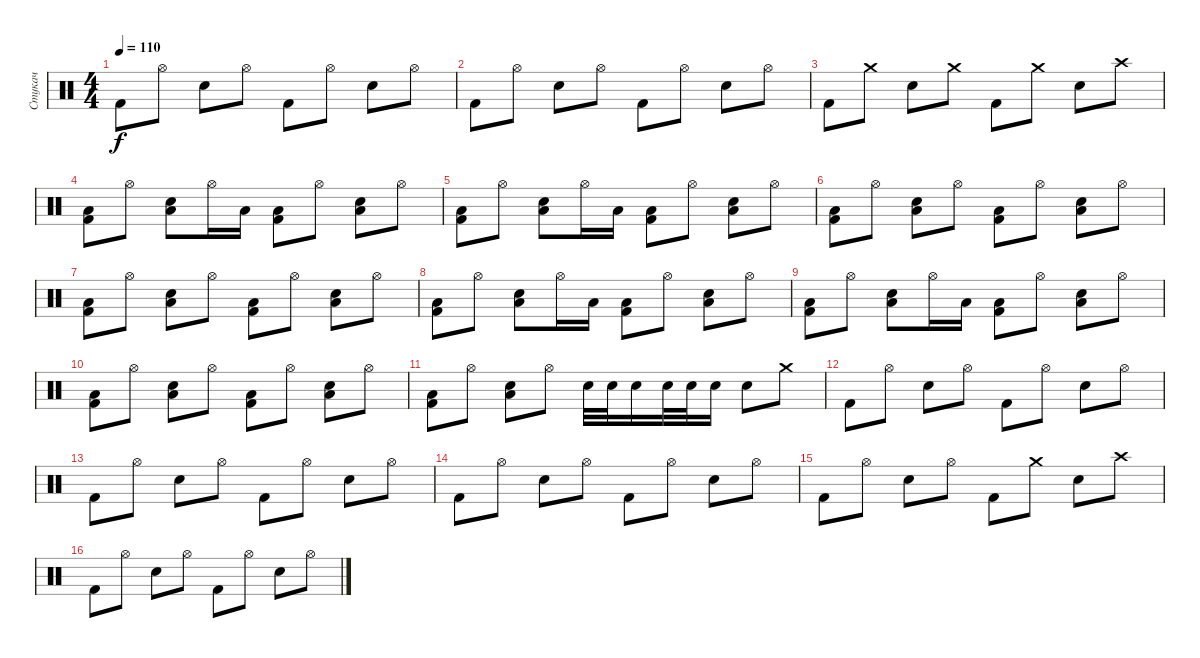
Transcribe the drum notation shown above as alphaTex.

\track ("Стукач" "Стукач") {instrument percussion}
\staff {score}
\articulation defaults
\ts (4 4)
\tempo 110
\clef neutral
\ks c "Kick (hit) 2".8{dy f} "Hi-Hat (open)".8 "Electric Snare (hit)".8 "Hi-Hat (open)".8 "Kick (hit) 2".8 "Hi-Hat (open)".8 "Electric Snare (hit)".8 "Hi-Hat (open)".8
|
"Kick (hit) 2".8 "Hi-Hat (open)".8 "Electric Snare (hit)".8 "Hi-Hat (open)".8 "Kick (hit) 2".8 "Hi-Hat (open)".8 "Electric Snare (hit)".8 "Hi-Hat (open)".8 |
"Kick (hit) 2".8 "Crash medium (hit)".8 "Electric Snare (hit)".8 "Crash medium (hit)".8 "Kick (hit) 2".8 "Crash medium (hit)".8 "Electric Snare (hit)".8 "Crash high (hit)".8 |
("Kick (hit) 2" "Low Floor Tom (hit)").8 "Hi-Hat (open)".8 ("Electric Snare (hit)" "Low Floor Tom (hit)").8 "Hi-Hat (open)".16 "Low Floor Tom (hit)".16 ("Kick (hit) 2" "Low Floor Tom (hit)").8 "Hi-Hat (open)".8 ("Electric Snare (hit)" "Low Floor Tom (hit)").8 "Hi-Hat (open)".8 |
("Kick (hit) 2" "Low Floor Tom (hit)").8 "Hi-Hat (open)".8 ("Electric Snare (hit)" "Low Floor Tom (hit)").8 "Hi-Hat (open)".16 "Low Floor Tom (hit)".16 ("Kick (hit) 2" "Low Floor Tom (hit)").8 "Hi-Hat (open)".8 ("Electric Snare (hit)" "Low Floor Tom (hit)").8 "Hi-Hat (open)".8 |
("Kick (hit) 2" "Low Floor Tom (hit)").8 "Hi-Hat (open)".8 ("Electric Snare (hit)" "Low Floor Tom (hit)").8 "Hi-Hat (open)".8 ("Kick (hit) 2" "Low Floor Tom (hit)").8 "Hi-Hat (open)".8 ("Electric Snare (hit)" "Low Floor Tom (hit)").8 "Hi-Hat (open)".8 |
("Kick (hit) 2" "Low Floor Tom (hit)").8 "Hi-Hat (open)".8 ("Electric Snare (hit)" "Low Floor Tom (hit)").8 "Hi-Hat (open)".8 ("Kick (hit) 2" "Low Floor Tom (hit)").8 "Hi-Hat (open)".8 ("Electric Snare (hit)" "Low Floor Tom (hit)").8 "Hi-Hat (open)".8 |
("Kick (hit) 2" "Low Floor Tom (hit)").8 "Hi-Hat (open)".8 ("Electric Snare (hit)" "Low Floor Tom (hit)").8 "Hi-Hat (open)".16 "Low Floor Tom (hit)".16 ("Kick (hit) 2" "Low Floor Tom (hit)").8 "Hi-Hat (open)".8 ("Electric Snare (hit)" "Low Floor Tom (hit)").8 "Hi-Hat (open)".8 |
("Kick (hit) 2" "Low Floor Tom (hit)").8 "Hi-Hat (open)".8 ("Electric Snare (hit)" "Low Floor Tom (hit)").8 "Hi-Hat (open)".16 "Low Floor Tom (hit)".16 ("Kick (hit) 2" "Low Floor Tom (hit)").8 "Hi-Hat (open)".8 ("Electric Snare (hit)" "Low Floor Tom (hit)").8 "Hi-Hat (open)".8 |
("Kick (hit) 2" "Low Floor Tom (hit)").8 "Hi-Hat (open)".8 ("Electric Snare (hit)" "Low Floor Tom (hit)").8 "Hi-Hat (open)".8 ("Kick (hit) 2" "Low Floor Tom (hit)").8 "Hi-Hat (open)".8 ("Electric Snare (hit)" "Low Floor Tom (hit)").8 "Hi-Hat (open)".8 |
("Kick (hit) 2" "Low Floor Tom (hit)").8 "Hi-Hat (open)".8 ("Electric Snare (hit)" "Low Floor Tom (hit)").8 "Hi-Hat (open)".8 "Snare (hit) 2".32 "Snare (hit) 2".32 "Snare (hit) 2".16 "Snare (hit) 2".32 "Snare (hit) 2".32 "Snare (hit) 2".16 "Snare (hit) 2".8 "Crash medium (hit)".8 |
"Kick (hit) 2".8 "Hi-Hat (open)".8 "Electric Snare (hit)".8 "Hi-Hat (open)".8 "Kick (hit) 2".8 "Hi-Hat (open)".8 "Electric Snare (hit)".8 "Hi-Hat (open)".8 |
"Kick (hit) 2".8 "Hi-Hat (open)".8 "Electric Snare (hit)".8 "Hi-Hat (open)".8 "Kick (hit) 2".8 "Hi-Hat (open)".8 "Electric Snare (hit)".8 "Hi-Hat (open)".8 |
"Kick (hit) 2".8 "Hi-Hat (open)".8 "Electric Snare (hit)".8 "Hi-Hat (open)".8 "Kick (hit) 2".8 "Hi-Hat (open)".8 "Electric Snare (hit)".8 "Hi-Hat (open)".8 |
"Kick (hit) 2".8 "Hi-Hat (open)".8 "Electric Snare (hit)".8 "Hi-Hat (open)".8 "Kick (hit) 2".8 "Crash medium (hit)".8 "Electric Snare (hit)".8 "Crash high (hit)".8 |
"Kick (hit) 2".8 "Hi-Hat (open)".8 "Electric Snare (hit)".8 "Hi-Hat (open)".8 "Kick (hit) 2".8 "Hi-Hat (open)".8 "Electric Snare (hit)".8 "Hi-Hat (open)".8
